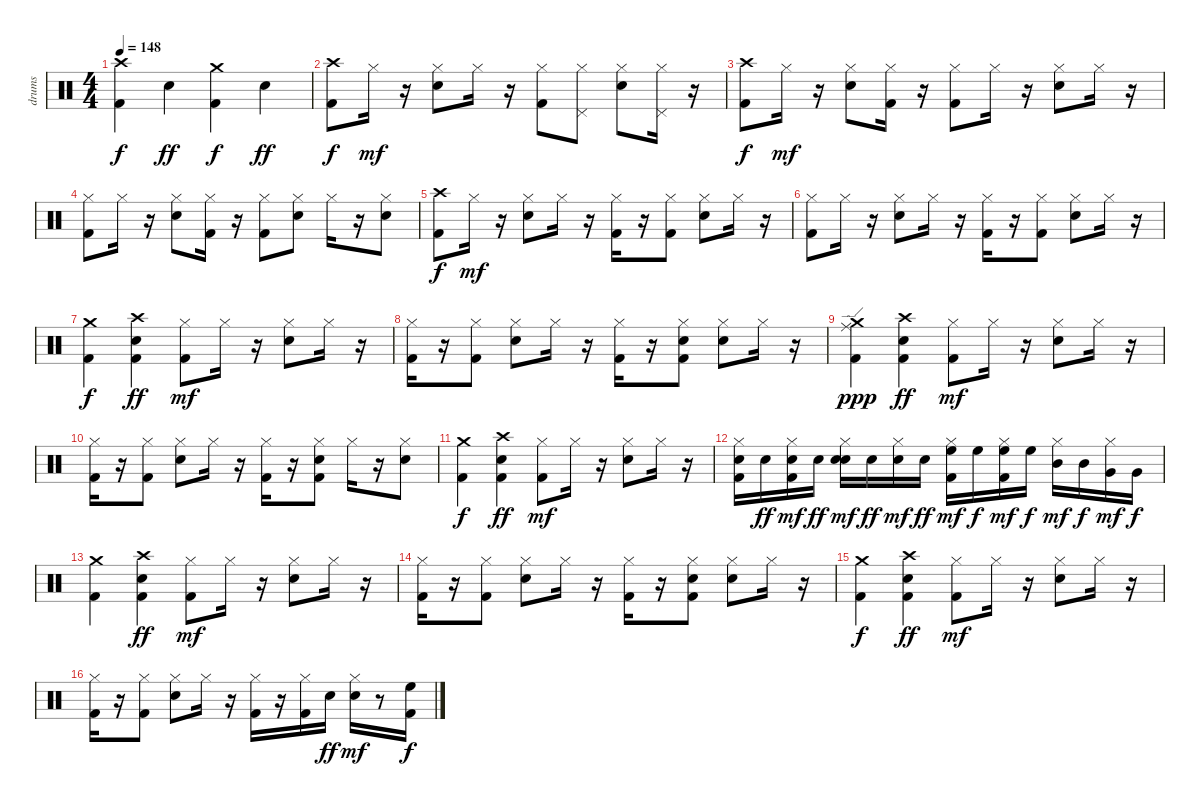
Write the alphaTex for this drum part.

\track ("drums" "drums") {instrument percussion}
\staff {score}
\articulation defaults
\ts (4 4)
\tempo 148
\clef neutral
\ks c
("Crash high (hit)" "Kick (hit) 2").4{dy f} "Snare (hit) 2".4{dy ff} ("Crash medium (hit)" "Kick (hit) 2").4{dy f} "Snare (hit) 2".4{dy ff} |
("Crash high (hit)" "Kick (hit) 2").8{dy f} "Hi-Hat (closed)".16{dy mf} r.16 ("Snare (hit) 2" "Hi-Hat (closed)").8 "Hi-Hat (closed)".16 r.16 ("Hi-Hat (closed)" "Kick (hit) 2").8 ("Pedal Hi-Hat (hit)" "Hi-Hat (closed)").8 ("Snare (hit) 2" "Hi-Hat (closed)").8 ("Pedal Hi-Hat (hit)" "Hi-Hat (closed)").16 r.16 |
("Crash high (hit)" "Kick (hit) 2").8{dy f} "Hi-Hat (closed)".16{dy mf} r.16 ("Snare (hit) 2" "Hi-Hat (closed)").8 ("Hi-Hat (closed)" "Kick (hit) 2").16 r.16 ("Hi-Hat (closed)" "Kick (hit) 2").8 "Hi-Hat (closed)".16 r.16 ("Snare (hit) 2" "Hi-Hat (closed)").8 "Hi-Hat (closed)".16 r.16 |
("Hi-Hat (closed)" "Kick (hit) 2").8 "Hi-Hat (closed)".16 r.16 ("Snare (hit) 2" "Hi-Hat (closed)").8 ("Hi-Hat (closed)" "Kick (hit) 2").16 r.16 ("Hi-Hat (closed)" "Kick (hit) 2").8 ("Snare (hit) 2" "Hi-Hat (closed)").8 "Hi-Hat (closed)".16 r.16 ("Snare (hit) 2" "Hi-Hat (closed)").8 |
("Crash high (hit)" "Kick (hit) 2").8{dy f} "Hi-Hat (closed)".16{dy mf} r.16 ("Snare (hit) 2" "Hi-Hat (closed)").8 "Hi-Hat (closed)".16 r.16 ("Hi-Hat (closed)" "Kick (hit) 2").16 r.16 ("Hi-Hat (closed)" "Kick (hit) 2").8 ("Snare (hit) 2" "Hi-Hat (closed)").8 "Hi-Hat (closed)".16 r.16 |
("Hi-Hat (closed)" "Kick (hit) 2").8 "Hi-Hat (closed)".16 r.16 ("Snare (hit) 2" "Hi-Hat (closed)").8 "Hi-Hat (closed)".16 r.16 ("Hi-Hat (closed)" "Kick (hit) 2").16 r.16 ("Hi-Hat (closed)" "Kick (hit) 2").8 ("Snare (hit) 2" "Hi-Hat (closed)").8 "Hi-Hat (closed)".16 r.16 |
("Crash medium (hit)" "Kick (hit) 2").4{dy f} ("Snare (hit) 2" "Crash high (hit)" "Kick (hit) 2").4{dy ff} ("Hi-Hat (closed)" "Kick (hit) 2").8{dy mf} "Hi-Hat (closed)".16 r.16 ("Snare (hit) 2" "Hi-Hat (closed)").8 "Hi-Hat (closed)".16 r.16 |
("Hi-Hat (closed)" "Kick (hit) 2").16 r.16 ("Hi-Hat (closed)" "Kick (hit) 2").8 ("Snare (hit) 2" "Hi-Hat (closed)").8 "Hi-Hat (closed)".16 r.16 ("Hi-Hat (closed)" "Kick (hit) 2").16 r.16 ("Snare (hit) 2" "Hi-Hat (closed)" "Kick (hit) 2").8 ("Snare (hit) 2" "Hi-Hat (closed)").8 "Hi-Hat (closed)".16 r.16 |
("Crash medium (hit)" "Ride (edge)" "Kick (hit) 2").4{dy ppp} ("Snare (hit) 2" "Crash high (hit)" "Kick (hit) 2").4{dy ff} ("Hi-Hat (closed)" "Kick (hit) 2").8{dy mf} "Hi-Hat (closed)".16 r.16 ("Snare (hit) 2" "Hi-Hat (closed)").8 "Hi-Hat (closed)".16 r.16 |
("Hi-Hat (closed)" "Kick (hit) 2").16 r.16 ("Hi-Hat (closed)" "Kick (hit) 2").8 ("Snare (hit) 2" "Hi-Hat (closed)").8 "Hi-Hat (closed)".16 r.16 ("Hi-Hat (closed)" "Kick (hit) 2").16 r.16 ("Snare (hit) 2" "Hi-Hat (closed)" "Kick (hit) 2").8 "Hi-Hat (closed)".16 r.16 ("Snare (hit) 2" "Hi-Hat (closed)").8 |
("Crash medium (hit)" "Kick (hit) 2").4{dy f} ("Snare (hit) 2" "Crash high (hit)" "Kick (hit) 2").4{dy ff} ("Hi-Hat (closed)" "Kick (hit) 2").8{dy mf} "Hi-Hat (closed)".16 r.16 ("Snare (hit) 2" "Hi-Hat (closed)").8 "Hi-Hat (closed)".16 r.16 |
("Snare (hit) 2" "Hi-Hat (closed)" "Kick (hit) 2").16 "Snare (hit) 2".16{dy ff} ("Snare (hit) 2" "Hi-Hat (closed)" "Kick (hit) 2").16{dy mf} "Snare (hit) 2".16{dy ff} ("Snare (hit) 2" "Snare (hit) 2" "Hi-Hat (closed)").16{dy mf} "Snare (hit) 2".16{dy ff} ("Snare (hit) 2" "Hi-Hat (closed)").16{dy mf} "Snare (hit) 2".16{dy ff} ("High Floor Tom (hit)" "Hi-Hat (closed)" "Kick (hit) 2").16{dy mf} "High Floor Tom (hit)".16{dy f} ("High Floor Tom (hit)" "Hi-Hat (closed)" "Kick (hit) 2").16{dy mf} "High Floor Tom (hit)".16{dy f} ("Mid Tom (hit)" "Hi-Hat (closed)").16{dy mf} "Mid Tom (hit)".16{dy f} ("Very Low Tom (hit)" "Hi-Hat (closed)").16{dy mf} "Very Low Tom (hit)".16{dy f} |
("Crash medium (hit)" "Kick (hit) 2").4 ("Snare (hit) 2" "Crash high (hit)" "Kick (hit) 2").4{dy ff} ("Hi-Hat (closed)" "Kick (hit) 2").8{dy mf} "Hi-Hat (closed)".16 r.16 ("Snare (hit) 2" "Hi-Hat (closed)").8 "Hi-Hat (closed)".16 r.16 |
("Hi-Hat (closed)" "Kick (hit) 2").16 r.16 ("Hi-Hat (closed)" "Kick (hit) 2").8 ("Snare (hit) 2" "Hi-Hat (closed)").8 "Hi-Hat (closed)".16 r.16 ("Hi-Hat (closed)" "Kick (hit) 2").16 r.16 ("Snare (hit) 2" "Hi-Hat (closed)" "Kick (hit) 2").8 ("Snare (hit) 2" "Hi-Hat (closed)").8 "Hi-Hat (closed)".16 r.16 |
("Crash medium (hit)" "Kick (hit) 2").4{dy f} ("Snare (hit) 2" "Crash high (hit)" "Kick (hit) 2").4{dy ff} ("Hi-Hat (closed)" "Kick (hit) 2").8{dy mf} "Hi-Hat (closed)".16 r.16 ("Snare (hit) 2" "Hi-Hat (closed)").8 "Hi-Hat (closed)".16 r.16 |
("Hi-Hat (closed)" "Kick (hit) 2").16 r.16 ("Hi-Hat (closed)" "Kick (hit) 2").8 ("Snare (hit) 2" "Hi-Hat (closed)").8 "Hi-Hat (closed)".16 r.16 ("Hi-Hat (closed)" "Kick (hit) 2").16 r.16 ("Hi-Hat (closed)" "Kick (hit) 2").16 "Snare (hit) 2".16{dy ff} ("Snare (hit) 2" "Hi-Hat (closed)").16{dy mf} r.8 ("Kick (hit) 2" "High Floor Tom (hit)").16{dy f}
